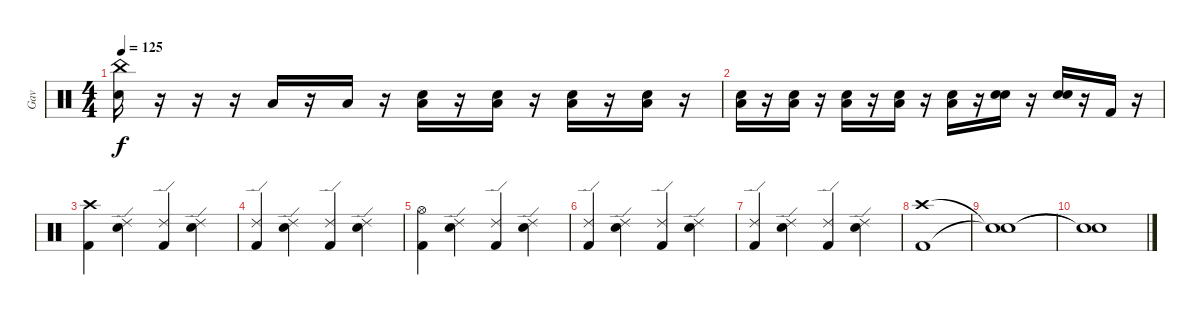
\track ("Gav" "Gav") {instrument percussion}
\staff {score}
\articulation defaults
\ts (4 4)
\tempo 125
\clef neutral
\ks c
("China (hit)" "Snare (hit) 2").16{dy f} r.16 r.16 r.16 "Low Floor Tom (hit)".16 r.16 "Low Floor Tom (hit)".16 r.16 ("Low Floor Tom (hit)" "Snare (hit) 2").16 r.16 ("Low Floor Tom (hit)" "Snare (hit) 2").16 r.16 ("Low Floor Tom (hit)" "Snare (hit) 2").16 r.16 ("Low Floor Tom (hit)" "Snare (hit) 2").16 r.16 |
("Low Floor Tom (hit)" "Snare (hit) 2").16 r.16 ("Low Floor Tom (hit)" "Snare (hit) 2").16 r.16 ("Low Floor Tom (hit)" "Snare (hit) 2").16 r.16 ("Low Floor Tom (hit)" "Snare (hit) 2").16 r.16 ("Low Floor Tom (hit)" "Snare (hit) 2").16 r.16 ("Snare (hit) 2" "Snare (hit) 2").16 r.16 ("Snare (hit) 2" "Snare (hit) 2").16 r.16 "Kick (hit) 2".16 r.16 |
("Crash high (hit)" "Kick (hit) 2").4 ("Ride (edge) 2" "Snare (hit) 2").4 ("Ride (edge) 2" "Kick (hit) 2").4 ("Ride (edge) 2" "Snare (hit) 2").4 |
("Ride (edge) 2" "Kick (hit) 2").4 ("Ride (edge) 2" "Snare (hit) 2").4 ("Ride (edge) 2" "Kick (hit) 2").4 ("Ride (edge) 2" "Snare (hit) 2").4 |
("Hi-Hat (open)" "Kick (hit) 2").4 ("Ride (edge) 2" "Snare (hit) 2").4 ("Ride (edge) 2" "Kick (hit) 2").4 ("Ride (edge) 2" "Snare (hit) 2").4 |
("Ride (edge) 2" "Kick (hit) 2").4 ("Ride (edge) 2" "Snare (hit) 2").4 ("Ride (edge) 2" "Kick (hit) 2").4 ("Ride (edge) 2" "Snare (hit) 2").4 |
("Ride (edge) 2" "Kick (hit) 2").4 ("Ride (edge) 2" "Snare (hit) 2").4 ("Ride (edge) 2" "Kick (hit) 2").4 ("Ride (edge) 2" "Snare (hit) 2").4 |
("Crash high (hit)" "Kick (hit) 2").1 |
("Snare (hit)"{t} "Snare (hit)"{t}).1 |
("Snare (hit)"{t} "Snare (hit)"{t}).1
